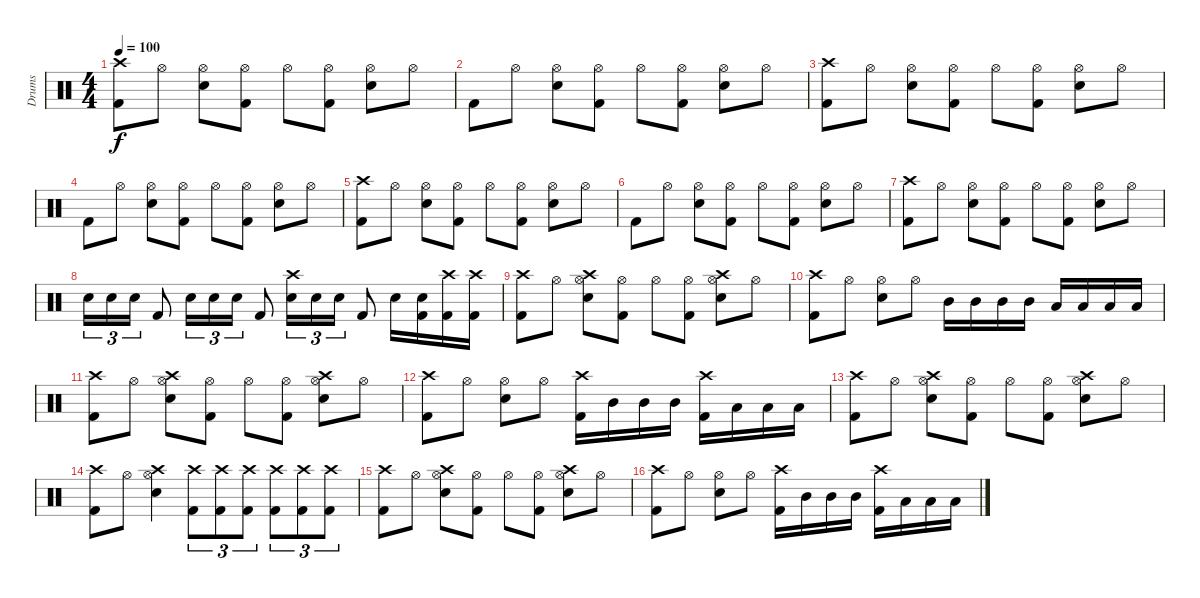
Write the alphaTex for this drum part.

\track ("Drums" "Drums") {instrument percussion}
\staff {score}
\articulation defaults
\ts (4 4)
\tempo 100
\clef neutral
\ks c
("Crash high (hit)" "Kick (hit) 2").8{dy f} "Hi-Hat (open)".8 ("Hi-Hat (open)" "Electric Snare (hit)").8 ("Hi-Hat (open)" "Kick (hit) 2").8 "Hi-Hat (open)".8 ("Hi-Hat (open)" "Kick (hit) 2").8 ("Hi-Hat (open)" "Electric Snare (hit)").8 "Hi-Hat (open)".8 |
"Kick (hit) 2".8 "Hi-Hat (open)".8 ("Hi-Hat (open)" "Electric Snare (hit)").8 ("Hi-Hat (open)" "Kick (hit) 2").8 "Hi-Hat (open)".8 ("Hi-Hat (open)" "Kick (hit) 2").8 ("Hi-Hat (open)" "Electric Snare (hit)").8 "Hi-Hat (open)".8 |
("Crash high (hit)" "Kick (hit) 2").8 "Hi-Hat (open)".8 ("Hi-Hat (open)" "Electric Snare (hit)").8 ("Hi-Hat (open)" "Kick (hit) 2").8 "Hi-Hat (open)".8 ("Hi-Hat (open)" "Kick (hit) 2").8 ("Hi-Hat (open)" "Electric Snare (hit)").8 "Hi-Hat (open)".8 |
"Kick (hit) 2".8 "Hi-Hat (open)".8 ("Hi-Hat (open)" "Electric Snare (hit)").8 ("Hi-Hat (open)" "Kick (hit) 2").8 "Hi-Hat (open)".8 ("Hi-Hat (open)" "Kick (hit) 2").8 ("Hi-Hat (open)" "Electric Snare (hit)").8 "Hi-Hat (open)".8 |
("Crash high (hit)" "Kick (hit) 2").8 "Hi-Hat (open)".8 ("Hi-Hat (open)" "Electric Snare (hit)").8 ("Hi-Hat (open)" "Kick (hit) 2").8 "Hi-Hat (open)".8 ("Hi-Hat (open)" "Kick (hit) 2").8 ("Hi-Hat (open)" "Electric Snare (hit)").8 "Hi-Hat (open)".8 |
"Kick (hit) 2".8 "Hi-Hat (open)".8 ("Hi-Hat (open)" "Electric Snare (hit)").8 ("Hi-Hat (open)" "Kick (hit) 2").8 "Hi-Hat (open)".8 ("Hi-Hat (open)" "Kick (hit) 2").8 ("Hi-Hat (open)" "Electric Snare (hit)").8 "Hi-Hat (open)".8 |
("Crash high (hit)" "Kick (hit) 2").8 "Hi-Hat (open)".8 ("Hi-Hat (open)" "Electric Snare (hit)").8 ("Hi-Hat (open)" "Kick (hit) 2").8 "Hi-Hat (open)".8 ("Hi-Hat (open)" "Kick (hit) 2").8 ("Hi-Hat (open)" "Electric Snare (hit)").8 "Hi-Hat (open)".8 |
"Electric Snare (hit)".16{tu (3 2)} "Electric Snare (hit)".16{tu (3 2)} "Electric Snare (hit)".16{tu (3 2)} "Kick (hit) 2".8 "Electric Snare (hit)".16{tu (3 2)} "Electric Snare (hit)".16{tu (3 2)} "Electric Snare (hit)".16{tu (3 2)} "Kick (hit) 2".8 ("Crash high (hit)" "Electric Snare (hit)").16{tu (3 2)} "Electric Snare (hit)".16{tu (3 2)} "Electric Snare (hit)".16{tu (3 2)} "Kick (hit) 2".8 "Electric Snare (hit)".16 ("Electric Snare (hit)" "Kick (hit) 2").16 ("Crash high (hit)" "Kick (hit) 2").16 ("Crash high (hit)" "Kick (hit) 2").16 |
("Crash high (hit)" "Kick (hit) 2").8 "Hi-Hat (open)".8 ("Crash high (hit)" "Hi-Hat (open)" "Electric Snare (hit)").8 ("Hi-Hat (open)" "Kick (hit) 2").8 "Hi-Hat (open)".8 ("Hi-Hat (open)" "Kick (hit) 2").8 ("Crash high (hit)" "Hi-Hat (open)" "Electric Snare (hit)").8 "Hi-Hat (open)".8 |
("Crash high (hit)" "Kick (hit) 2").8 "Hi-Hat (open)".8 ("Hi-Hat (open)" "Electric Snare (hit)").8 "Hi-Hat (open)".8 "Mid Tom (hit)".16 "Mid Tom (hit)".16 "Mid Tom (hit)".16 "Mid Tom (hit)".16 "Low Tom (hit)".16 "Low Tom (hit)".16 "Low Tom (hit)".16 "Low Tom (hit)".16 |
("Crash high (hit)" "Kick (hit) 2").8 "Hi-Hat (open)".8 ("Crash high (hit)" "Hi-Hat (open)" "Electric Snare (hit)").8 ("Hi-Hat (open)" "Kick (hit) 2").8 "Hi-Hat (open)".8 ("Hi-Hat (open)" "Kick (hit) 2").8 ("Crash high (hit)" "Hi-Hat (open)" "Electric Snare (hit)").8 "Hi-Hat (open)".8 |
("Crash high (hit)" "Kick (hit) 2").8 "Hi-Hat (open)".8 ("Hi-Hat (open)" "Electric Snare (hit)").8 "Hi-Hat (open)".8 ("Crash high (hit)" "Kick (hit) 2").16 "Mid Tom (hit)".16 "Mid Tom (hit)".16 "Mid Tom (hit)".16 ("Crash high (hit)" "Kick (hit) 2").16 "Low Tom (hit)".16 "Low Tom (hit)".16 "Low Tom (hit)".16 |
("Crash high (hit)" "Kick (hit) 2").8 "Hi-Hat (open)".8 ("Crash high (hit)" "Hi-Hat (open)" "Electric Snare (hit)").8 ("Hi-Hat (open)" "Kick (hit) 2").8 "Hi-Hat (open)".8 ("Hi-Hat (open)" "Kick (hit) 2").8 ("Crash high (hit)" "Hi-Hat (open)" "Electric Snare (hit)").8 "Hi-Hat (open)".8 |
("Crash high (hit)" "Kick (hit) 2").8 "Hi-Hat (open)".8 ("Crash high (hit)" "Hi-Hat (open)" "Electric Snare (hit)").4 ("Crash high (hit)" "Kick (hit) 2").8{tu (3 2)} ("Crash high (hit)" "Kick (hit) 2").8{tu (3 2)} ("Crash high (hit)" "Kick (hit) 2").8{tu (3 2)} ("Crash high (hit)" "Kick (hit) 2").8{tu (3 2)} ("Crash high (hit)" "Kick (hit) 2").8{tu (3 2)} ("Crash high (hit)" "Kick (hit) 2").8{tu (3 2)} |
("Crash high (hit)" "Kick (hit) 2").8 "Hi-Hat (open)".8 ("Crash high (hit)" "Hi-Hat (open)" "Electric Snare (hit)").8 ("Hi-Hat (open)" "Kick (hit) 2").8 "Hi-Hat (open)".8 ("Hi-Hat (open)" "Kick (hit) 2").8 ("Crash high (hit)" "Hi-Hat (open)" "Electric Snare (hit)").8 "Hi-Hat (open)".8 |
("Crash high (hit)" "Kick (hit) 2").8 "Hi-Hat (open)".8 ("Hi-Hat (open)" "Electric Snare (hit)").8 "Hi-Hat (open)".8 ("Crash high (hit)" "Kick (hit) 2").16 "Mid Tom (hit)".16 "Mid Tom (hit)".16 "Mid Tom (hit)".16 ("Crash high (hit)" "Kick (hit) 2").16 "Low Tom (hit)".16 "Low Tom (hit)".16 "Low Tom (hit)".16
